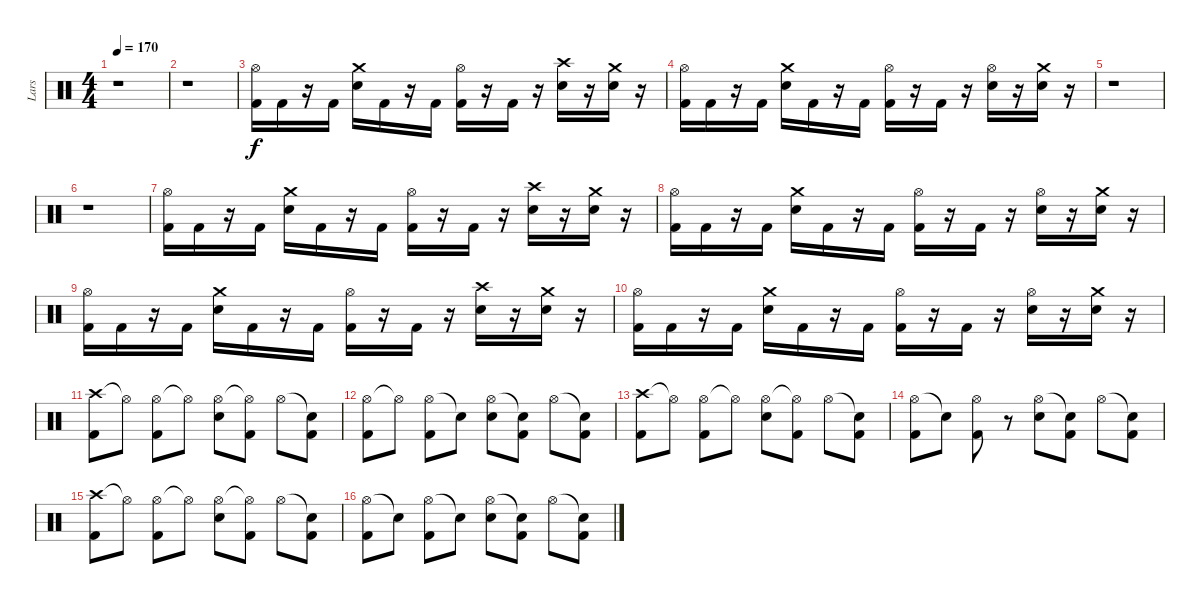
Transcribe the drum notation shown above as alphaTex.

\track ("Lars" "Lars") {instrument percussion}
\staff {score}
\articulation defaults
\ts (4 4)
\tempo 170
\clef neutral
\ks c
r.1{dy f} |
r.1 |
("Hi-Hat (open)" "Kick (hit) 2").16 "Kick (hit) 2".16 r.16 "Kick (hit) 2".16 ("Crash medium (hit)" "Electric Snare (hit)").16 "Kick (hit) 2".16 r.16 "Kick (hit) 2".16 ("Hi-Hat (open)" "Kick (hit) 2").16 r.16 "Kick (hit) 2".16 r.16 ("Crash high (hit)" "Electric Snare (hit)").16 r.16 ("Crash medium (hit)" "Electric Snare (hit)").16 r.16 |
("Hi-Hat (open)" "Kick (hit) 2").16 "Kick (hit) 2".16 r.16 "Kick (hit) 2".16 ("Crash medium (hit)" "Electric Snare (hit)").16 "Kick (hit) 2".16 r.16 "Kick (hit) 2".16 ("Hi-Hat (open)" "Kick (hit) 2").16 r.16 "Kick (hit) 2".16 r.16 ("Hi-Hat (open)" "Electric Snare (hit)").16 r.16 ("Crash medium (hit)" "Electric Snare (hit)").16 r.16 |
r.1 |
r.1 |
("Hi-Hat (open)" "Kick (hit) 2").16 "Kick (hit) 2".16 r.16 "Kick (hit) 2".16 ("Crash medium (hit)" "Electric Snare (hit)").16 "Kick (hit) 2".16 r.16 "Kick (hit) 2".16 ("Hi-Hat (open)" "Kick (hit) 2").16 r.16 "Kick (hit) 2".16 r.16 ("Crash high (hit)" "Electric Snare (hit)").16 r.16 ("Crash medium (hit)" "Electric Snare (hit)").16 r.16 |
("Hi-Hat (open)" "Kick (hit) 2").16 "Kick (hit) 2".16 r.16 "Kick (hit) 2".16 ("Crash medium (hit)" "Electric Snare (hit)").16 "Kick (hit) 2".16 r.16 "Kick (hit) 2".16 ("Hi-Hat (open)" "Kick (hit) 2").16 r.16 "Kick (hit) 2".16 r.16 ("Hi-Hat (open)" "Electric Snare (hit)").16 r.16 ("Crash medium (hit)" "Electric Snare (hit)").16 r.16 |
("Hi-Hat (open)" "Kick (hit) 2").16 "Kick (hit) 2".16 r.16 "Kick (hit) 2".16 ("Crash medium (hit)" "Electric Snare (hit)").16 "Kick (hit) 2".16 r.16 "Kick (hit) 2".16 ("Hi-Hat (open)" "Kick (hit) 2").16 r.16 "Kick (hit) 2".16 r.16 ("Crash high (hit)" "Electric Snare (hit)").16 r.16 ("Crash medium (hit)" "Electric Snare (hit)").16 r.16 |
("Hi-Hat (open)" "Kick (hit) 2").16 "Kick (hit) 2".16 r.16 "Kick (hit) 2".16 ("Crash medium (hit)" "Electric Snare (hit)").16 "Kick (hit) 2".16 r.16 "Kick (hit) 2".16 ("Hi-Hat (open)" "Kick (hit) 2").16 r.16 "Kick (hit) 2".16 r.16 ("Hi-Hat (open)" "Electric Snare (hit)").16 r.16 ("Crash medium (hit)" "Electric Snare (hit)").16 r.16 |
("Crash high (hit)" "Kick (hit) 2").8 "Hi-Hat (open)"{t}.8 ("Hi-Hat (open)" "Kick (hit) 2").8 "Hi-Hat (open)"{t}.8 ("Hi-Hat (open)" "Electric Snare (hit)").8 ("Hi-Hat (open)"{t} "Kick (hit) 2").8 "Hi-Hat (open)".8 ("Snare (hit)"{t} "Kick (hit) 2").8 |
("Hi-Hat (open)" "Kick (hit) 2").8 "Hi-Hat (open)"{t}.8 ("Hi-Hat (open)" "Kick (hit) 2").8 "Snare (hit)"{t}.8 ("Hi-Hat (open)" "Electric Snare (hit)").8 ("Snare (hit)"{t} "Kick (hit) 2").8 "Hi-Hat (open)".8 ("Snare (hit)"{t} "Kick (hit) 2").8 |
("Crash high (hit)" "Kick (hit) 2").8 "Hi-Hat (open)"{t}.8 ("Hi-Hat (open)" "Kick (hit) 2").8 "Hi-Hat (open)"{t}.8 ("Hi-Hat (open)" "Electric Snare (hit)").8 ("Hi-Hat (open)"{t} "Kick (hit) 2").8 "Hi-Hat (open)".8 ("Snare (hit)"{t} "Kick (hit) 2").8 |
("Hi-Hat (open)" "Kick (hit) 2").8 "Snare (hit)"{t}.8 ("Hi-Hat (open)" "Kick (hit) 2").8 r.8 ("Hi-Hat (open)" "Electric Snare (hit)").8 ("Snare (hit)"{t} "Kick (hit) 2").8 "Hi-Hat (open)".8 ("Snare (hit)"{t} "Kick (hit) 2").8 |
("Crash high (hit)" "Kick (hit) 2").8 "Hi-Hat (open)"{t}.8 ("Hi-Hat (open)" "Kick (hit) 2").8 "Hi-Hat (open)"{t}.8 ("Hi-Hat (open)" "Electric Snare (hit)").8 ("Hi-Hat (open)"{t} "Kick (hit) 2").8 "Hi-Hat (open)".8 ("Snare (hit)"{t} "Kick (hit) 2").8 |
("Hi-Hat (open)" "Kick (hit) 2").8 "Snare (hit)"{t}.8 ("Hi-Hat (open)" "Kick (hit) 2").8 "Snare (hit)"{t}.8 ("Hi-Hat (open)" "Electric Snare (hit)").8 ("Snare (hit)"{t} "Kick (hit) 2").8 "Hi-Hat (open)".8 ("Snare (hit)"{t} "Kick (hit) 2").8
